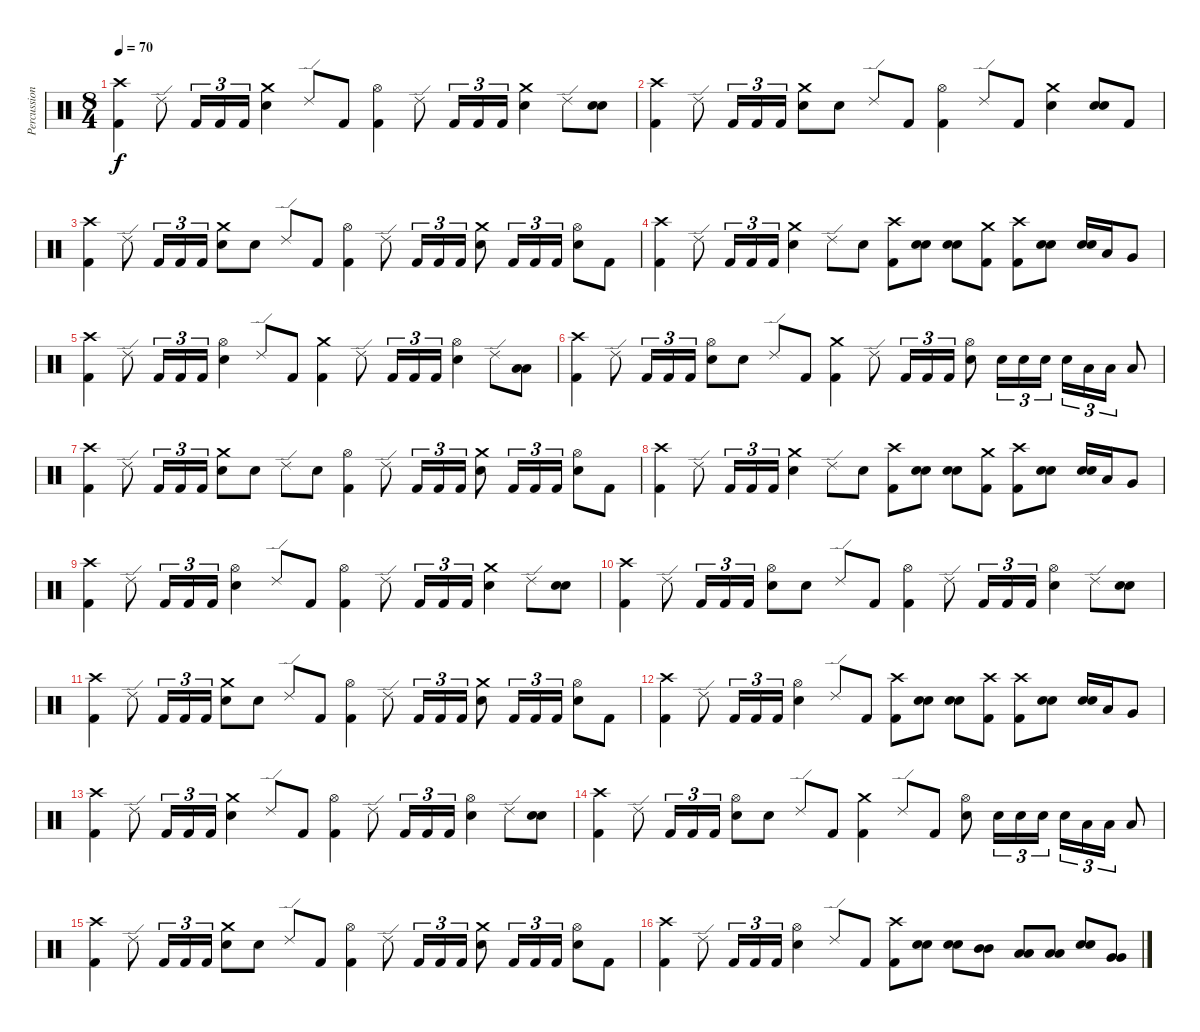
\track ("Percussion" "Percussion") {instrument percussion}
\staff {score}
\articulation defaults
\ts (8 4)
\tempo 70
\clef neutral
\ks c
("Crash high (hit)" "Kick (hit) 2").4{dy f} "Ride (edge) 2".8 "Kick (hit) 2".16{tu (3 2)} "Kick (hit) 2".16{tu (3 2)} "Kick (hit) 2".16{tu (3 2)} ("Crash medium (hit)" "Electric Snare (hit)").4 "Ride (edge) 2".8 "Kick (hit) 2".8 ("Hi-Hat (open)" "Kick (hit) 2").4 "Ride (edge) 2".8 "Kick (hit) 2".16{tu (3 2)} "Kick (hit) 2".16{tu (3 2)} "Kick (hit) 2".16{tu (3 2)} ("Crash medium (hit)" "Electric Snare (hit)").4 "Ride (edge) 2".8 ("Electric Snare (hit)" "Electric Snare (hit)").8{bu 60} |
("Crash high (hit)" "Kick (hit) 2").4 "Ride (edge) 2".8 "Kick (hit) 2".16{tu (3 2)} "Kick (hit) 2".16{tu (3 2)} "Kick (hit) 2".16{tu (3 2)} ("Crash medium (hit)" "Electric Snare (hit)").8 "Electric Snare (hit)".8 "Ride (edge) 2".8 "Kick (hit) 2".8 ("Hi-Hat (open)" "Kick (hit) 2").4 "Ride (edge) 2".8 "Kick (hit) 2".8 ("Crash medium (hit)" "Electric Snare (hit)").4 ("Electric Snare (hit)" "Electric Snare (hit)").8{bu 60} "Kick (hit) 2".8 |
("Crash high (hit)" "Kick (hit) 2").4 "Ride (edge) 2".8 "Kick (hit) 2".16{tu (3 2)} "Kick (hit) 2".16{tu (3 2)} "Kick (hit) 2".16{tu (3 2)} ("Crash medium (hit)" "Electric Snare (hit)").8 "Electric Snare (hit)".8 "Ride (edge) 2".8 "Kick (hit) 2".8 ("Hi-Hat (open)" "Kick (hit) 2").4 "Ride (edge) 2".8 "Kick (hit) 2".16{tu (3 2)} "Kick (hit) 2".16{tu (3 2)} "Kick (hit) 2".16{tu (3 2)} ("Crash medium (hit)" "Electric Snare (hit)").8 "Kick (hit) 2".16{tu (3 2)} "Kick (hit) 2".16{tu (3 2)} "Kick (hit) 2".16{tu (3 2)} ("Hi-Hat (open)" "Electric Snare (hit)").8 "Kick (hit) 2".8 |
("Crash high (hit)" "Kick (hit) 2").4 "Ride (edge) 2".8 "Kick (hit) 2".16{tu (3 2)} "Kick (hit) 2".16{tu (3 2)} "Kick (hit) 2".16{tu (3 2)} ("Crash medium (hit)" "Electric Snare (hit)").4 "Ride (edge) 2".8 "Electric Snare (hit)".8 ("Crash high (hit)" "Kick (hit) 2").8 ("Electric Snare (hit)" "Electric Snare (hit)").8{bu 60} ("Electric Snare (hit)" "Electric Snare (hit)").8{bu 60} ("Crash medium (hit)" "Kick (hit) 2").8 ("Crash high (hit)" "Kick (hit) 2").8 ("Electric Snare (hit)" "Electric Snare (hit)").8{bu 60} ("Electric Snare (hit)" "Electric Snare (hit)").16{bu 60} "Low Tom (hit)".16 "Very Low Tom (hit)".8 |
("Crash high (hit)" "Kick (hit) 2").4 "Ride (edge) 2".8 "Kick (hit) 2".16{tu (3 2)} "Kick (hit) 2".16{tu (3 2)} "Kick (hit) 2".16{tu (3 2)} ("Hi-Hat (open)" "Electric Snare (hit)").4 "Ride (edge) 2".8 "Kick (hit) 2".8 ("Crash medium (hit)" "Kick (hit) 2").4 "Ride (edge) 2".8 "Kick (hit) 2".16{tu (3 2)} "Kick (hit) 2".16{tu (3 2)} "Kick (hit) 2".16{tu (3 2)} ("Hi-Hat (open)" "Electric Snare (hit)").4 "Ride (edge) 2".8 ("Low Tom (hit)" "Low Tom (hit)").8{bu 60} |
("Crash high (hit)" "Kick (hit) 2").4 "Ride (edge) 2".8 "Kick (hit) 2".16{tu (3 2)} "Kick (hit) 2".16{tu (3 2)} "Kick (hit) 2".16{tu (3 2)} ("Hi-Hat (open)" "Electric Snare (hit)").8 "Electric Snare (hit)".8 "Ride (edge) 2".8 "Kick (hit) 2".8 ("Crash medium (hit)" "Kick (hit) 2").4 "Ride (edge) 2".8 "Kick (hit) 2".16{tu (3 2)} "Kick (hit) 2".16{tu (3 2)} "Kick (hit) 2".16{tu (3 2)} ("Hi-Hat (open)" "Electric Snare (hit)").8 "Electric Snare (hit)".16{tu (3 2)} "Electric Snare (hit)".16{tu (3 2)} "Electric Snare (hit)".16{tu (3 2)} "Electric Snare (hit)".16{tu (3 2)} "Low Tom (hit)".16{tu (3 2)} "Low Tom (hit)".16{tu (3 2)} "Low Tom (hit)".8 |
("Crash high (hit)" "Kick (hit) 2").4 "Ride (edge) 2".8 "Kick (hit) 2".16{tu (3 2)} "Kick (hit) 2".16{tu (3 2)} "Kick (hit) 2".16{tu (3 2)} ("Crash medium (hit)" "Electric Snare (hit)").8 "Electric Snare (hit)".8 "Ride (edge) 2".8 "Electric Snare (hit)".8 ("Hi-Hat (open)" "Kick (hit) 2").4 "Ride (edge) 2".8 "Kick (hit) 2".16{tu (3 2)} "Kick (hit) 2".16{tu (3 2)} "Kick (hit) 2".16{tu (3 2)} ("Crash medium (hit)" "Electric Snare (hit)").8 "Kick (hit) 2".16{tu (3 2)} "Kick (hit) 2".16{tu (3 2)} "Kick (hit) 2".16{tu (3 2)} ("Hi-Hat (open)" "Electric Snare (hit)").8 "Kick (hit) 2".8 |
("Crash high (hit)" "Kick (hit) 2").4 "Ride (edge) 2".8 "Kick (hit) 2".16{tu (3 2)} "Kick (hit) 2".16{tu (3 2)} "Kick (hit) 2".16{tu (3 2)} ("Crash medium (hit)" "Electric Snare (hit)").4 "Ride (edge) 2".8 "Electric Snare (hit)".8 ("Crash high (hit)" "Kick (hit) 2").8 ("Electric Snare (hit)" "Electric Snare (hit)").8{bu 60} ("Electric Snare (hit)" "Electric Snare (hit)").8{bu 60} ("Crash medium (hit)" "Kick (hit) 2").8 ("Crash high (hit)" "Kick (hit) 2").8 ("Electric Snare (hit)" "Electric Snare (hit)").8{bu 60} ("Electric Snare (hit)" "Electric Snare (hit)").16{bu 60} "Low Tom (hit)".16 "Very Low Tom (hit)".8 |
("Crash high (hit)" "Kick (hit) 2").4 "Ride (edge) 2".8 "Kick (hit) 2".16{tu (3 2)} "Kick (hit) 2".16{tu (3 2)} "Kick (hit) 2".16{tu (3 2)} ("Hi-Hat (open)" "Electric Snare (hit)").4 "Ride (edge) 2".8 "Kick (hit) 2".8 ("Hi-Hat (open)" "Kick (hit) 2").4 "Ride (edge) 2".8 "Kick (hit) 2".16{tu (3 2)} "Kick (hit) 2".16{tu (3 2)} "Kick (hit) 2".16{tu (3 2)} ("Crash medium (hit)" "Electric Snare (hit)").4 "Ride (edge) 2".8 ("Electric Snare (hit)" "Electric Snare (hit)").8{bu 60} |
("Crash high (hit)" "Kick (hit) 2").4 "Ride (edge) 2".8 "Kick (hit) 2".16{tu (3 2)} "Kick (hit) 2".16{tu (3 2)} "Kick (hit) 2".16{tu (3 2)} ("Hi-Hat (open)" "Electric Snare (hit)").8 "Electric Snare (hit)".8 "Ride (edge) 2".8 "Kick (hit) 2".8 ("Hi-Hat (open)" "Kick (hit) 2").4 "Ride (edge) 2".8 "Kick (hit) 2".16{tu (3 2)} "Kick (hit) 2".16{tu (3 2)} "Kick (hit) 2".16{tu (3 2)} ("Hi-Hat (open)" "Electric Snare (hit)").4 "Ride (edge) 2".8 ("Electric Snare (hit)" "Electric Snare (hit)").8{bu 60} |
("Crash high (hit)" "Kick (hit) 2").4 "Ride (edge) 2".8 "Kick (hit) 2".16{tu (3 2)} "Kick (hit) 2".16{tu (3 2)} "Kick (hit) 2".16{tu (3 2)} ("Crash medium (hit)" "Electric Snare (hit)").8 "Electric Snare (hit)".8 "Ride (edge) 2".8 "Kick (hit) 2".8 ("Hi-Hat (open)" "Kick (hit) 2").4 "Ride (edge) 2".8 "Kick (hit) 2".16{tu (3 2)} "Kick (hit) 2".16{tu (3 2)} "Kick (hit) 2".16{tu (3 2)} ("Crash medium (hit)" "Electric Snare (hit)").8 "Kick (hit) 2".16{tu (3 2)} "Kick (hit) 2".16{tu (3 2)} "Kick (hit) 2".16{tu (3 2)} ("Hi-Hat (open)" "Electric Snare (hit)").8 "Kick (hit) 2".8 |
("Crash high (hit)" "Kick (hit) 2").4 "Ride (edge) 2".8 "Kick (hit) 2".16{tu (3 2)} "Kick (hit) 2".16{tu (3 2)} "Kick (hit) 2".16{tu (3 2)} ("Hi-Hat (open)" "Electric Snare (hit)").4 "Ride (edge) 2".8 "Kick (hit) 2".8 ("Crash high (hit)" "Kick (hit) 2").8 ("Electric Snare (hit)" "Electric Snare (hit)").8{bu 60} ("Electric Snare (hit)" "Electric Snare (hit)").8{bu 60} ("Crash high (hit)" "Kick (hit) 2").8 ("Crash high (hit)" "Kick (hit) 2").8 ("Electric Snare (hit)" "Electric Snare (hit)").8{bu 60} ("Electric Snare (hit)" "Electric Snare (hit)").16{bu 60} "Low Tom (hit)".16 "Very Low Tom (hit)".8 |
("Crash high (hit)" "Kick (hit) 2").4 "Ride (edge) 2".8 "Kick (hit) 2".16{tu (3 2)} "Kick (hit) 2".16{tu (3 2)} "Kick (hit) 2".16{tu (3 2)} ("Crash medium (hit)" "Electric Snare (hit)").4 "Ride (edge) 2".8 "Kick (hit) 2".8 ("Hi-Hat (open)" "Kick (hit) 2").4 "Ride (edge) 2".8 "Kick (hit) 2".16{tu (3 2)} "Kick (hit) 2".16{tu (3 2)} "Kick (hit) 2".16{tu (3 2)} ("Hi-Hat (open)" "Electric Snare (hit)").4 "Ride (edge) 2".8 ("Electric Snare (hit)" "Electric Snare (hit)").8{bu 60} |
("Crash high (hit)" "Kick (hit) 2").4 "Ride (edge) 2".8 "Kick (hit) 2".16{tu (3 2)} "Kick (hit) 2".16{tu (3 2)} "Kick (hit) 2".16{tu (3 2)} ("Hi-Hat (open)" "Electric Snare (hit)").8 "Electric Snare (hit)".8 "Ride (edge) 2".8 "Kick (hit) 2".8 ("Crash medium (hit)" "Kick (hit) 2").4 "Ride (edge) 2".8 "Kick (hit) 2".8 ("Hi-Hat (open)" "Electric Snare (hit)").8 "Electric Snare (hit)".16{tu (3 2)} "Electric Snare (hit)".16{tu (3 2)} "Electric Snare (hit)".16{tu (3 2)} "Electric Snare (hit)".16{tu (3 2)} "Low Tom (hit)".16{tu (3 2)} "Low Tom (hit)".16{tu (3 2)} "Low Tom (hit)".8 |
("Crash high (hit)" "Kick (hit) 2").4 "Ride (edge) 2".8 "Kick (hit) 2".16{tu (3 2)} "Kick (hit) 2".16{tu (3 2)} "Kick (hit) 2".16{tu (3 2)} ("Crash medium (hit)" "Electric Snare (hit)").8 "Electric Snare (hit)".8 "Ride (edge) 2".8 "Kick (hit) 2".8 ("Hi-Hat (open)" "Kick (hit) 2").4 "Ride (edge) 2".8 "Kick (hit) 2".16{tu (3 2)} "Kick (hit) 2".16{tu (3 2)} "Kick (hit) 2".16{tu (3 2)} ("Crash medium (hit)" "Electric Snare (hit)").8 "Kick (hit) 2".16{tu (3 2)} "Kick (hit) 2".16{tu (3 2)} "Kick (hit) 2".16{tu (3 2)} ("Hi-Hat (open)" "Electric Snare (hit)").8 "Kick (hit) 2".8 |
("Crash high (hit)" "Kick (hit) 2").4 "Ride (edge) 2".8 "Kick (hit) 2".16{tu (3 2)} "Kick (hit) 2".16{tu (3 2)} "Kick (hit) 2".16{tu (3 2)} ("Hi-Hat (open)" "Electric Snare (hit)").4 "Ride (edge) 2".8 "Kick (hit) 2".8 ("Crash high (hit)" "Kick (hit) 2").8 ("Electric Snare (hit)" "Electric Snare (hit)").8{bu 60} ("Electric Snare (hit)" "Electric Snare (hit)").8{bu 60} ("Mid Tom (hit)" "Mid Tom (hit)").8{bu 60} ("Low Tom (hit)" "Low Tom (hit)").8{bu 60} ("Low Tom (hit)" "Low Tom (hit)").8{bu 60} ("Electric Snare (hit)" "Electric Snare (hit)").8{bu 60} ("Very Low Tom (hit)" "Very Low Tom (hit)").8{bu 60}
